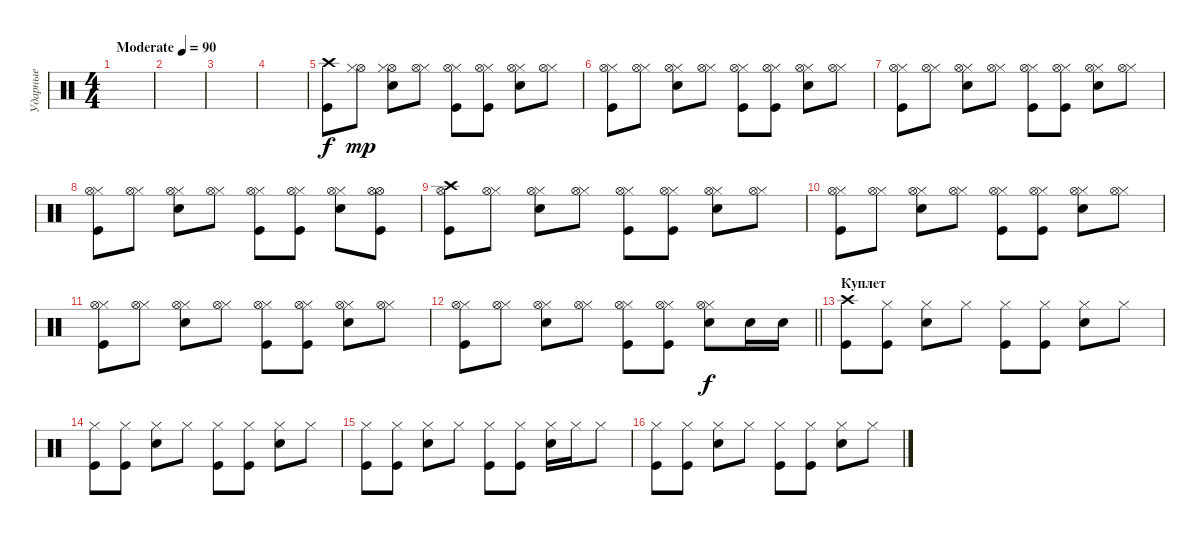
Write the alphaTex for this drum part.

\track ("Ударные" "Ударные") {instrument percussion}
\staff {score}
\articulation defaults
\ts (4 4)
\tempo (90 "Moderate")
\clef neutral
\ks c
|
|
|
|
("Kick (hit)" "Crash high (hit)").8 ("Hi-Hat (open)" "Hi-Hat (closed)").8{dy mp} ("Hi-Hat (open)" "Snare (hit) 2" "Hi-Hat (closed)").8 ("Hi-Hat (closed)" "Hi-Hat (open)").8 ("Hi-Hat (closed)" "Kick (hit)" "Hi-Hat (open)").8 ("Hi-Hat (closed)" "Kick (hit)" "Hi-Hat (open)").8 ("Hi-Hat (closed)" "Snare (hit) 2" "Hi-Hat (open)").8 ("Hi-Hat (closed)" "Hi-Hat (open)").8 |
("Kick (hit)" "Hi-Hat (closed)" "Hi-Hat (open)").8 ("Hi-Hat (closed)" "Hi-Hat (open)").8 ("Hi-Hat (closed)" "Snare (hit) 2" "Hi-Hat (open)").8 ("Hi-Hat (closed)" "Hi-Hat (open)").8 ("Hi-Hat (closed)" "Kick (hit)" "Hi-Hat (open)").8 ("Hi-Hat (closed)" "Kick (hit)" "Hi-Hat (open)").8 ("Hi-Hat (closed)" "Snare (hit) 2" "Hi-Hat (open)").8 ("Hi-Hat (closed)" "Hi-Hat (open)").8 |
("Kick (hit)" "Hi-Hat (closed)" "Hi-Hat (open)").8 ("Hi-Hat (closed)" "Hi-Hat (open)").8 ("Hi-Hat (closed)" "Snare (hit) 2" "Hi-Hat (open)").8 ("Hi-Hat (closed)" "Hi-Hat (open)").8 ("Hi-Hat (closed)" "Kick (hit)" "Hi-Hat (open)").8 ("Hi-Hat (closed)" "Kick (hit)" "Hi-Hat (open)").8 ("Hi-Hat (closed)" "Snare (hit) 2" "Hi-Hat (open)").8 ("Hi-Hat (closed)" "Hi-Hat (open)").8 |
("Kick (hit)" "Hi-Hat (closed)" "Hi-Hat (open)").8 ("Hi-Hat (closed)" "Hi-Hat (open)").8 ("Hi-Hat (closed)" "Snare (hit) 2" "Hi-Hat (open)").8 ("Hi-Hat (closed)" "Hi-Hat (open)").8 ("Hi-Hat (closed)" "Kick (hit)" "Hi-Hat (open)").8 ("Hi-Hat (closed)" "Kick (hit)" "Hi-Hat (open)").8 ("Hi-Hat (closed)" "Snare (hit) 2" "Hi-Hat (open)").8 ("Hi-Hat (open)" "Kick (hit)" "Hi-Hat (open)").8 |
("Kick (hit)" "Crash high (hit)" "Hi-Hat (open)").8 ("Hi-Hat (closed)" "Hi-Hat (open)").8 ("Hi-Hat (closed)" "Snare (hit) 2" "Hi-Hat (open)").8 ("Hi-Hat (closed)" "Hi-Hat (open)").8 ("Hi-Hat (closed)" "Kick (hit)" "Hi-Hat (open)").8 ("Hi-Hat (closed)" "Kick (hit)" "Hi-Hat (open)").8 ("Hi-Hat (closed)" "Snare (hit) 2" "Hi-Hat (open)").8 ("Hi-Hat (closed)" "Hi-Hat (open)").8 |
("Kick (hit)" "Hi-Hat (closed)" "Hi-Hat (open)").8 ("Hi-Hat (closed)" "Hi-Hat (open)").8 ("Hi-Hat (closed)" "Snare (hit) 2" "Hi-Hat (open)").8 ("Hi-Hat (closed)" "Hi-Hat (open)").8 ("Hi-Hat (closed)" "Kick (hit)" "Hi-Hat (open)").8 ("Hi-Hat (closed)" "Kick (hit)" "Hi-Hat (open)").8 ("Hi-Hat (closed)" "Snare (hit) 2" "Hi-Hat (open)").8 ("Hi-Hat (closed)" "Hi-Hat (open)").8 |
("Kick (hit)" "Hi-Hat (closed)" "Hi-Hat (open)").8 ("Hi-Hat (closed)" "Hi-Hat (open)").8 ("Hi-Hat (closed)" "Snare (hit) 2" "Hi-Hat (open)").8 ("Hi-Hat (closed)" "Hi-Hat (open)").8 ("Hi-Hat (closed)" "Kick (hit)" "Hi-Hat (open)").8 ("Hi-Hat (closed)" "Kick (hit)" "Hi-Hat (open)").8 ("Hi-Hat (closed)" "Snare (hit) 2" "Hi-Hat (open)").8 ("Hi-Hat (closed)" "Hi-Hat (open)").8 |
\barLineRight lightlight
("Kick (hit)" "Hi-Hat (closed)" "Hi-Hat (open)").8 ("Hi-Hat (closed)" "Hi-Hat (open)").8 ("Hi-Hat (closed)" "Snare (hit) 2" "Hi-Hat (open)").8 ("Hi-Hat (closed)" "Hi-Hat (open)").8 ("Hi-Hat (closed)" "Kick (hit)" "Hi-Hat (open)").8 ("Hi-Hat (closed)" "Kick (hit)" "Hi-Hat (open)").8 ("Hi-Hat (closed)" "Snare (hit) 2" "Hi-Hat (open)").8{dy f} "Snare (hit) 2".16 "Snare (hit) 2".16 |
\section ("" "Куплет")
("Kick (hit)" "Crash high (hit)").8 ("Kick (hit)" "Hi-Hat (closed)").8 ("Hi-Hat (closed)" "Snare (hit) 2").8 "Hi-Hat (closed)".8 ("Hi-Hat (closed)" "Kick (hit)").8 ("Hi-Hat (closed)" "Kick (hit)").8 ("Hi-Hat (closed)" "Snare (hit) 2").8 "Hi-Hat (closed)".8 |
("Kick (hit)" "Hi-Hat (closed)").8 ("Hi-Hat (closed)" "Kick (hit)").8 ("Hi-Hat (closed)" "Snare (hit) 2").8 "Hi-Hat (closed)".8 ("Hi-Hat (closed)" "Kick (hit)").8 ("Hi-Hat (closed)" "Kick (hit)").8 ("Hi-Hat (closed)" "Snare (hit) 2").8 "Hi-Hat (closed)".8 |
("Hi-Hat (closed)" "Kick (hit)").8 ("Hi-Hat (closed)" "Kick (hit)").8 ("Hi-Hat (closed)" "Snare (hit) 2").8 "Hi-Hat (closed)".8 ("Hi-Hat (closed)" "Kick (hit)").8 ("Hi-Hat (closed)" "Kick (hit)").8 ("Snare (hit) 2" "Hi-Hat (closed)").16 "Hi-Hat (closed)".16 "Hi-Hat (closed)".8 |
("Hi-Hat (closed)" "Kick (hit)").8 ("Hi-Hat (closed)" "Kick (hit)").8 ("Hi-Hat (closed)" "Snare (hit) 2").8 "Hi-Hat (closed)".8 ("Hi-Hat (closed)" "Kick (hit)").8 ("Hi-Hat (closed)" "Kick (hit)").8 ("Hi-Hat (closed)" "Snare (hit) 2").8 "Hi-Hat (closed)".8
